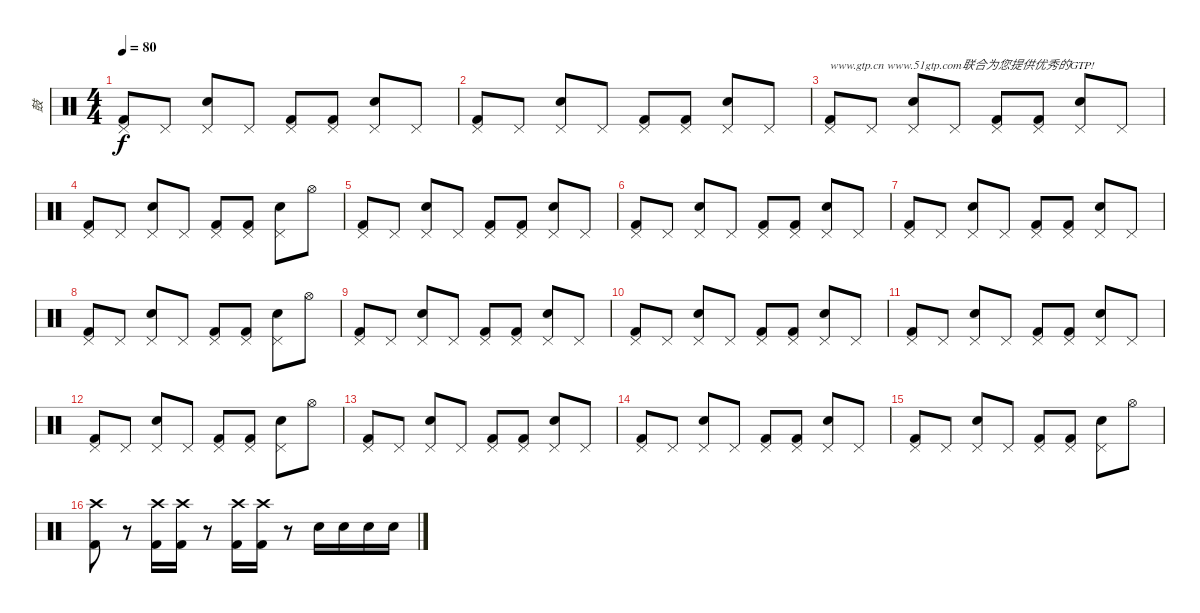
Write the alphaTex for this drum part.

\track ("鼓" "鼓") {instrument percussion}
\staff {score}
\articulation defaults
\ts (4 4)
\tempo 80
\clef neutral
\ks c
("Pedal Hi-Hat (hit)" "Kick (hit) 2").8{dy f} "Pedal Hi-Hat (hit)".8 ("Pedal Hi-Hat (hit)" "Electric Snare (hit)").8 "Pedal Hi-Hat (hit)".8 ("Pedal Hi-Hat (hit)" "Kick (hit) 2").8 ("Pedal Hi-Hat (hit)" "Kick (hit) 2").8 ("Pedal Hi-Hat (hit)" "Electric Snare (hit)").8 "Pedal Hi-Hat (hit)".8 |
("Pedal Hi-Hat (hit)" "Kick (hit) 2").8 "Pedal Hi-Hat (hit)".8 ("Pedal Hi-Hat (hit)" "Electric Snare (hit)").8 "Pedal Hi-Hat (hit)".8 ("Pedal Hi-Hat (hit)" "Kick (hit) 2").8 ("Pedal Hi-Hat (hit)" "Kick (hit) 2").8 ("Pedal Hi-Hat (hit)" "Electric Snare (hit)").8 "Pedal Hi-Hat (hit)".8 |
("Pedal Hi-Hat (hit)" "Kick (hit) 2").8{txt "www.gtp.cn www.51gtp.com联合为您提供优秀的GTP!"} "Pedal Hi-Hat (hit)".8 ("Pedal Hi-Hat (hit)" "Electric Snare (hit)").8 "Pedal Hi-Hat (hit)".8 ("Pedal Hi-Hat (hit)" "Kick (hit) 2").8 ("Pedal Hi-Hat (hit)" "Kick (hit) 2").8 ("Pedal Hi-Hat (hit)" "Electric Snare (hit)").8 "Pedal Hi-Hat (hit)".8 |
("Pedal Hi-Hat (hit)" "Kick (hit) 2").8 "Pedal Hi-Hat (hit)".8 ("Pedal Hi-Hat (hit)" "Electric Snare (hit)").8 "Pedal Hi-Hat (hit)".8 ("Pedal Hi-Hat (hit)" "Kick (hit) 2").8 ("Pedal Hi-Hat (hit)" "Kick (hit) 2").8 ("Pedal Hi-Hat (hit)" "Electric Snare (hit)").8 "Hi-Hat (open)".8 |
("Pedal Hi-Hat (hit)" "Kick (hit) 2").8 "Pedal Hi-Hat (hit)".8 ("Pedal Hi-Hat (hit)" "Electric Snare (hit)").8 "Pedal Hi-Hat (hit)".8 ("Pedal Hi-Hat (hit)" "Kick (hit) 2").8 ("Pedal Hi-Hat (hit)" "Kick (hit) 2").8 ("Pedal Hi-Hat (hit)" "Electric Snare (hit)").8 "Pedal Hi-Hat (hit)".8 |
("Pedal Hi-Hat (hit)" "Kick (hit) 2").8 "Pedal Hi-Hat (hit)".8 ("Pedal Hi-Hat (hit)" "Electric Snare (hit)").8 "Pedal Hi-Hat (hit)".8 ("Pedal Hi-Hat (hit)" "Kick (hit) 2").8 ("Pedal Hi-Hat (hit)" "Kick (hit) 2").8 ("Pedal Hi-Hat (hit)" "Electric Snare (hit)").8 "Pedal Hi-Hat (hit)".8 |
("Pedal Hi-Hat (hit)" "Kick (hit) 2").8 "Pedal Hi-Hat (hit)".8 ("Pedal Hi-Hat (hit)" "Electric Snare (hit)").8 "Pedal Hi-Hat (hit)".8 ("Pedal Hi-Hat (hit)" "Kick (hit) 2").8 ("Pedal Hi-Hat (hit)" "Kick (hit) 2").8 ("Pedal Hi-Hat (hit)" "Electric Snare (hit)").8 "Pedal Hi-Hat (hit)".8 |
("Pedal Hi-Hat (hit)" "Kick (hit) 2").8 "Pedal Hi-Hat (hit)".8 ("Pedal Hi-Hat (hit)" "Electric Snare (hit)").8 "Pedal Hi-Hat (hit)".8 ("Pedal Hi-Hat (hit)" "Kick (hit) 2").8 ("Pedal Hi-Hat (hit)" "Kick (hit) 2").8 ("Pedal Hi-Hat (hit)" "Electric Snare (hit)").8 "Hi-Hat (open)".8 |
("Pedal Hi-Hat (hit)" "Kick (hit) 2").8 "Pedal Hi-Hat (hit)".8 ("Pedal Hi-Hat (hit)" "Electric Snare (hit)").8 "Pedal Hi-Hat (hit)".8 ("Pedal Hi-Hat (hit)" "Kick (hit) 2").8 ("Pedal Hi-Hat (hit)" "Kick (hit) 2").8 ("Pedal Hi-Hat (hit)" "Electric Snare (hit)").8 "Pedal Hi-Hat (hit)".8 |
("Pedal Hi-Hat (hit)" "Kick (hit) 2").8 "Pedal Hi-Hat (hit)".8 ("Pedal Hi-Hat (hit)" "Electric Snare (hit)").8 "Pedal Hi-Hat (hit)".8 ("Pedal Hi-Hat (hit)" "Kick (hit) 2").8 ("Pedal Hi-Hat (hit)" "Kick (hit) 2").8 ("Pedal Hi-Hat (hit)" "Electric Snare (hit)").8 "Pedal Hi-Hat (hit)".8 |
("Pedal Hi-Hat (hit)" "Kick (hit) 2").8 "Pedal Hi-Hat (hit)".8 ("Pedal Hi-Hat (hit)" "Electric Snare (hit)").8 "Pedal Hi-Hat (hit)".8 ("Pedal Hi-Hat (hit)" "Kick (hit) 2").8 ("Pedal Hi-Hat (hit)" "Kick (hit) 2").8 ("Pedal Hi-Hat (hit)" "Electric Snare (hit)").8 "Pedal Hi-Hat (hit)".8 |
("Pedal Hi-Hat (hit)" "Kick (hit) 2").8 "Pedal Hi-Hat (hit)".8 ("Pedal Hi-Hat (hit)" "Electric Snare (hit)").8 "Pedal Hi-Hat (hit)".8 ("Pedal Hi-Hat (hit)" "Kick (hit) 2").8 ("Pedal Hi-Hat (hit)" "Kick (hit) 2").8 ("Pedal Hi-Hat (hit)" "Electric Snare (hit)").8 "Hi-Hat (open)".8 |
("Pedal Hi-Hat (hit)" "Kick (hit) 2").8 "Pedal Hi-Hat (hit)".8 ("Pedal Hi-Hat (hit)" "Electric Snare (hit)").8 "Pedal Hi-Hat (hit)".8 ("Pedal Hi-Hat (hit)" "Kick (hit) 2").8 ("Pedal Hi-Hat (hit)" "Kick (hit) 2").8 ("Pedal Hi-Hat (hit)" "Electric Snare (hit)").8 "Pedal Hi-Hat (hit)".8 |
("Pedal Hi-Hat (hit)" "Kick (hit) 2").8 "Pedal Hi-Hat (hit)".8 ("Pedal Hi-Hat (hit)" "Electric Snare (hit)").8 "Pedal Hi-Hat (hit)".8 ("Pedal Hi-Hat (hit)" "Kick (hit) 2").8 ("Pedal Hi-Hat (hit)" "Kick (hit) 2").8 ("Pedal Hi-Hat (hit)" "Electric Snare (hit)").8 "Pedal Hi-Hat (hit)".8 |
("Pedal Hi-Hat (hit)" "Kick (hit) 2").8 "Pedal Hi-Hat (hit)".8 ("Pedal Hi-Hat (hit)" "Electric Snare (hit)").8 "Pedal Hi-Hat (hit)".8 ("Pedal Hi-Hat (hit)" "Kick (hit) 2").8 ("Pedal Hi-Hat (hit)" "Kick (hit) 2").8 ("Pedal Hi-Hat (hit)" "Electric Snare (hit)").8 "Hi-Hat (open)".8 |
("Crash high (hit)" "Kick (hit) 2").8 r.8 ("Crash high (hit)" "Kick (hit) 2").16 ("Crash high (hit)" "Kick (hit) 2").16 r.8 ("Crash high (hit)" "Kick (hit) 2").16 ("Crash high (hit)" "Kick (hit) 2").16 r.8 "Electric Snare (hit)".16 "Electric Snare (hit)".16 "Electric Snare (hit)".16 "Electric Snare (hit)".16
